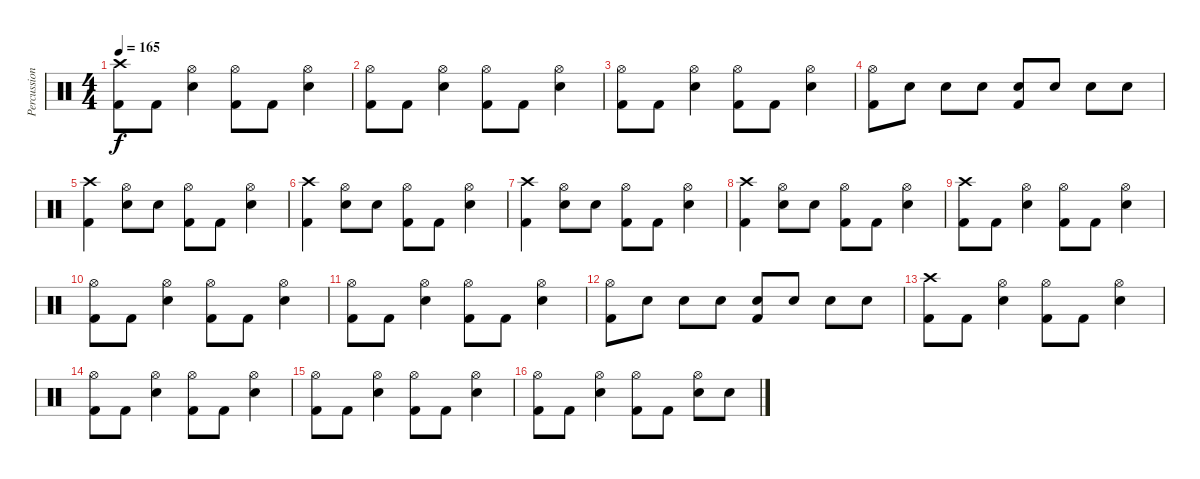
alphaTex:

\track ("Percussion" "Percussion") {instrument percussion}
\staff {score}
\articulation defaults
\ts (4 4)
\tempo 165
\clef neutral
\ks c
("Crash high (hit)" "Kick (hit) 2").8{dy f} "Kick (hit) 2".8 ("Hi-Hat (open)" "Snare (hit) 2").4 ("Hi-Hat (open)" "Kick (hit) 2").8 "Kick (hit) 2".8 ("Hi-Hat (open)" "Snare (hit) 2").4 |
("Hi-Hat (open)" "Kick (hit) 2").8 "Kick (hit) 2".8 ("Hi-Hat (open)" "Snare (hit) 2").4 ("Hi-Hat (open)" "Kick (hit) 2").8 "Kick (hit) 2".8 ("Hi-Hat (open)" "Snare (hit) 2").4 |
("Hi-Hat (open)" "Kick (hit) 2").8 "Kick (hit) 2".8 ("Hi-Hat (open)" "Snare (hit) 2").4 ("Hi-Hat (open)" "Kick (hit) 2").8 "Kick (hit) 2".8 ("Hi-Hat (open)" "Snare (hit) 2").4 |
("Hi-Hat (open)" "Kick (hit) 2").8 "Snare (hit) 2".8 "Snare (hit) 2".8 "Snare (hit) 2".8 ("Snare (hit) 2" "Kick (hit) 2").8 "Snare (hit) 2".8 "Snare (hit) 2".8 "Snare (hit) 2".8 |
("Crash high (hit)" "Kick (hit) 2").4 ("Hi-Hat (open)" "Snare (hit) 2").8 "Snare (hit) 2".8 ("Hi-Hat (open)" "Kick (hit) 2").8 "Kick (hit) 2".8 ("Hi-Hat (open)" "Snare (hit) 2").4 |
("Crash high (hit)" "Kick (hit) 2").4 ("Hi-Hat (open)" "Snare (hit) 2").8 "Snare (hit) 2".8 ("Hi-Hat (open)" "Kick (hit) 2").8 "Kick (hit) 2".8 ("Hi-Hat (open)" "Snare (hit) 2").4 |
("Crash high (hit)" "Kick (hit) 2").4 ("Hi-Hat (open)" "Snare (hit) 2").8 "Snare (hit) 2".8 ("Hi-Hat (open)" "Kick (hit) 2").8 "Kick (hit) 2".8 ("Hi-Hat (open)" "Snare (hit) 2").4 |
("Crash high (hit)" "Kick (hit) 2").4 ("Hi-Hat (open)" "Snare (hit) 2").8 "Snare (hit) 2".8 ("Hi-Hat (open)" "Kick (hit) 2").8 "Kick (hit) 2".8 ("Hi-Hat (open)" "Snare (hit) 2").4 |
("Crash high (hit)" "Kick (hit) 2").8 "Kick (hit) 2".8 ("Hi-Hat (open)" "Snare (hit) 2").4 ("Hi-Hat (open)" "Kick (hit) 2").8 "Kick (hit) 2".8 ("Hi-Hat (open)" "Snare (hit) 2").4 |
("Hi-Hat (open)" "Kick (hit) 2").8 "Kick (hit) 2".8 ("Hi-Hat (open)" "Snare (hit) 2").4 ("Hi-Hat (open)" "Kick (hit) 2").8 "Kick (hit) 2".8 ("Hi-Hat (open)" "Snare (hit) 2").4 |
("Hi-Hat (open)" "Kick (hit) 2").8 "Kick (hit) 2".8 ("Hi-Hat (open)" "Snare (hit) 2").4 ("Hi-Hat (open)" "Kick (hit) 2").8 "Kick (hit) 2".8 ("Hi-Hat (open)" "Snare (hit) 2").4 |
("Hi-Hat (open)" "Kick (hit) 2").8 "Snare (hit) 2".8 "Snare (hit) 2".8 "Snare (hit) 2".8 ("Snare (hit) 2" "Kick (hit) 2").8 "Snare (hit) 2".8 "Snare (hit) 2".8 "Snare (hit) 2".8 |
("Crash high (hit)" "Kick (hit) 2").8 "Kick (hit) 2".8 ("Hi-Hat (open)" "Snare (hit) 2").4 ("Hi-Hat (open)" "Kick (hit) 2").8 "Kick (hit) 2".8 ("Hi-Hat (open)" "Snare (hit) 2").4 |
("Hi-Hat (open)" "Kick (hit) 2").8 "Kick (hit) 2".8 ("Hi-Hat (open)" "Snare (hit) 2").4 ("Hi-Hat (open)" "Kick (hit) 2").8 "Kick (hit) 2".8 ("Hi-Hat (open)" "Snare (hit) 2").4 |
("Hi-Hat (open)" "Kick (hit) 2").8 "Kick (hit) 2".8 ("Hi-Hat (open)" "Snare (hit) 2").4 ("Hi-Hat (open)" "Kick (hit) 2").8 "Kick (hit) 2".8 ("Hi-Hat (open)" "Snare (hit) 2").4 |
("Hi-Hat (open)" "Kick (hit) 2").8 "Kick (hit) 2".8 ("Hi-Hat (open)" "Snare (hit) 2").4 ("Hi-Hat (open)" "Kick (hit) 2").8 "Kick (hit) 2".8 ("Hi-Hat (open)" "Snare (hit) 2").8 "Snare (hit) 2".8
